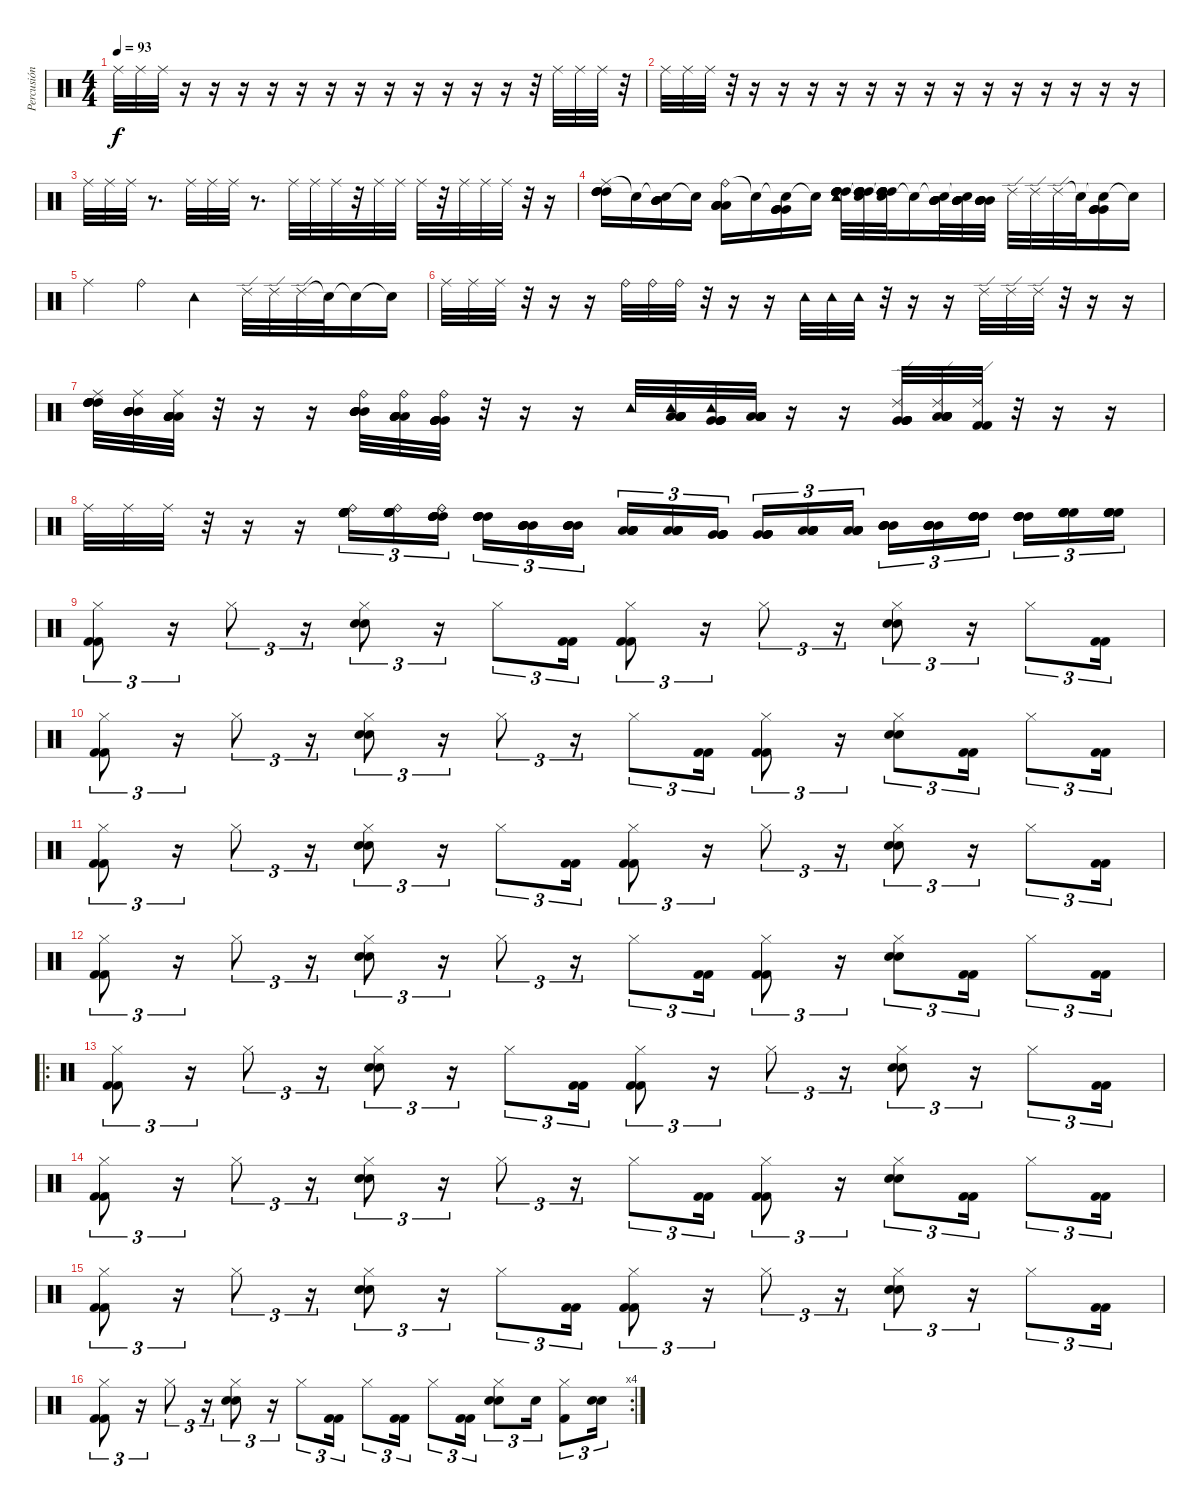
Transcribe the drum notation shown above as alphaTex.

\track ("Percusión" "Percusión") {instrument percussion}
\staff {score}
\articulation defaults
\ts (4 4)
\tempo 93
\clef neutral
\ks c "Ride (middle)".32{dy f} "Ride (middle)".32 "Ride (middle)".32
r.16 r.16 r.16 r.16 r.16 r.16 r.16 r.16 r.16 r.16 r.16 r.16 r.32 "Ride (middle)".32 "Ride (middle)".32 "Ride (middle)".32 r.32 |
"Ride (middle)".32 "Ride (middle)".32 "Ride (middle)".32 r.32 r.16 r.16 r.16 r.16 r.16 r.16 r.16 r.16 r.16 r.16 r.16 r.16 r.16 r.16 |
"Ride (middle)".32 "Ride (middle)".32 "Ride (middle)".32 r.8{d} "Ride (middle)".32 "Ride (middle)".32 "Ride (middle)".32 r.8{d} "Ride (middle)".32 "Ride (middle)".32 "Ride (middle)".32 r.32 "Ride (middle)".32 "Ride (middle)".32 "Ride (middle)".32 r.32 "Ride (middle)".32 "Ride (middle)".32 "Ride (middle)".32 r.32 r.16 |
("Ride (middle)" "High Tom (hit)" "High Tom (hit)" "High Tom (hit)" "High Tom (hit)").16 "Snare (hit)"{t}.16 ("Snare (hit)"{t} "Mid Tom (hit)" "Mid Tom (hit)" "Mid Tom (hit)" "Mid Tom (hit)").16 "Snare (hit)"{t}.16 ("Ride (bell)" "Low Tom (hit)" "Low Tom (hit)" "Low Tom (hit)" "Low Tom (hit)").16 "Snare (hit)"{t}.16 ("Snare (hit)"{t} "Very Low Tom (hit)" "Very Low Tom (hit)" "Very Low Tom (hit)" "Very Low Tom (hit)").16 "Snare (hit)"{t}.16 ("Tambourine (hit)" "High Tom (hit)" "High Tom (hit)" "High Tom (hit)" "High Tom (hit)" "High Tom (hit)").32 ("Snare (hit)"{t} "High Tom (hit)" "High Tom (hit)" "High Tom (hit)" "High Tom (hit)" "High Tom (hit)").32 ("Snare (hit)"{t} "High Tom (hit)" "High Tom (hit)" "High Tom (hit)" "High Tom (hit)" "High Tom (hit)").32 "Snare (hit)"{t}.16 ("Snare (hit)"{t} "Mid Tom (hit)" "Mid Tom (hit)" "Mid Tom (hit)" "Mid Tom (hit)" "Mid Tom (hit)").32 ("Snare (hit)"{t} "Mid Tom (hit)" "Mid Tom (hit)" "Mid Tom (hit)" "Mid Tom (hit)" "Mid Tom (hit)").32 ("Mid Tom (hit)" "Mid Tom (hit)" "Mid Tom (hit)" "Mid Tom (hit)" "Mid Tom (hit)").32 "Ride (edge) 2".32 "Ride (edge) 2".32 "Ride (edge) 2".32 "Snare (hit)"{t}.32 ("Snare (hit)"{t} "Very Low Tom (hit)" "Very Low Tom (hit)" "Very Low Tom (hit)" "Very Low Tom (hit)").16 "Snare (hit)"{t}.16 |
"Ride (middle)".4 "Ride (bell)".4 "Tambourine (hit)".4 "Ride (edge) 2".32 "Ride (edge) 2".32 "Ride (edge) 2".32 "Snare (hit)"{t}.32 "Snare (hit)"{t}.16 "Snare (hit)"{t}.16 |
"Ride (middle)".32 "Ride (middle)".32 "Ride (middle)".32 r.32 r.16 r.16 "Ride (bell)".32 "Ride (bell)".32 "Ride (bell)".32 r.32 r.16 r.16 "Tambourine (hit)".32 "Tambourine (hit)".32 "Tambourine (hit)".32 r.32 r.16 r.16 "Ride (edge) 2".32 "Ride (edge) 2".32 "Ride (edge) 2".32 r.32 r.16 r.16 |
("Ride (middle)" "High Tom (hit)" "High Tom (hit)" "High Tom (hit)" "High Tom (hit)" "High Tom (hit)").32 ("Ride (middle)" "Mid Tom (hit)" "Mid Tom (hit)" "Mid Tom (hit)" "Mid Tom (hit)" "Mid Tom (hit)").32 ("Ride (middle)" "Low Tom (hit)" "Low Tom (hit)" "Low Tom (hit)" "Low Tom (hit)" "Low Tom (hit)").32 r.32 r.16 r.16 ("Ride (bell)" "Mid Tom (hit)" "Mid Tom (hit)" "Mid Tom (hit)" "Mid Tom (hit)" "Mid Tom (hit)").32 ("Ride (bell)" "Low Tom (hit)" "Low Tom (hit)" "Low Tom (hit)" "Low Tom (hit)" "Low Tom (hit)").32 ("Ride (bell)" "Very Low Tom (hit)" "Very Low Tom (hit)" "Very Low Tom (hit)" "Very Low Tom (hit)" "Very Low Tom (hit)").32 r.32 r.16 r.16 "Tambourine (hit)".32 ("Tambourine (hit)" "Low Tom (hit)" "Low Tom (hit)" "Low Tom (hit)" "Low Tom (hit)" "Low Tom (hit)").32 ("Tambourine (hit)" "Very Low Tom (hit)" "Very Low Tom (hit)" "Very Low Tom (hit)" "Very Low Tom (hit)" "Very Low Tom (hit)").32 ("Low Floor Tom (hit)" "Low Floor Tom (hit)" "Low Floor Tom (hit)" "Low Floor Tom (hit)" "Low Floor Tom (hit)").32 r.16 r.16 ("Ride (edge) 2" "Very Low Tom (hit)" "Very Low Tom (hit)" "Very Low Tom (hit)" "Very Low Tom (hit)" "Very Low Tom (hit)").32 ("Ride (edge) 2" "Low Floor Tom (hit)" "Low Floor Tom (hit)" "Low Floor Tom (hit)" "Low Floor Tom (hit)" "Low Floor Tom (hit)").32 ("Ride (edge) 2" "Kick (hit) 2" "Kick (hit) 2").32 r.32 r.16 r.16 |
"Ride (middle)".32 "Ride (middle)".32 "Ride (middle)".32 r.32 r.16 r.16 ("Ride (bell)" "High Floor Tom (hit)" "High Floor Tom (hit)" "High Floor Tom (hit)" "High Floor Tom (hit)" "High Floor Tom (hit)").16{tu (3 2)} ("Ride (bell)" "High Floor Tom (hit)" "High Floor Tom (hit)" "High Floor Tom (hit)" "High Floor Tom (hit)" "High Floor Tom (hit)").16{tu (3 2)} ("Ride (bell)" "High Tom (hit)" "High Tom (hit)" "High Tom (hit)" "High Tom (hit)" "High Tom (hit)").16{tu (3 2)} ("High Tom (hit)" "High Tom (hit)" "High Tom (hit)" "High Tom (hit)" "High Tom (hit)").16{tu (3 2)} ("Mid Tom (hit)" "Mid Tom (hit)" "Mid Tom (hit)" "Mid Tom (hit)" "Mid Tom (hit)").16{tu (3 2)} ("Mid Tom (hit)" "Mid Tom (hit)" "Mid Tom (hit)" "Mid Tom (hit)" "Mid Tom (hit)").16{tu (3 2)} ("Low Tom (hit)" "Low Tom (hit)" "Low Tom (hit)" "Low Tom (hit)" "Low Tom (hit)").16{tu (3 2)} ("Low Tom (hit)" "Low Tom (hit)" "Low Tom (hit)" "Low Tom (hit)" "Low Tom (hit)").16{tu (3 2)} ("Very Low Tom (hit)" "Very Low Tom (hit)" "Very Low Tom (hit)" "Very Low Tom (hit)" "Very Low Tom (hit)").16{tu (3 2)} ("Very Low Tom (hit)" "Very Low Tom (hit)" "Very Low Tom (hit)" "Very Low Tom (hit)" "Very Low Tom (hit)").16{tu (3 2)} ("Low Tom (hit)" "Low Tom (hit)" "Low Tom (hit)" "Low Tom (hit)" "Low Tom (hit)").16{tu (3 2)} ("Low Tom (hit)" "Low Tom (hit)" "Low Tom (hit)" "Low Tom (hit)" "Low Tom (hit)").16{tu (3 2)} ("Mid Tom (hit)" "Mid Tom (hit)" "Mid Tom (hit)" "Mid Tom (hit)" "Mid Tom (hit)").16{tu (3 2)} ("Mid Tom (hit)" "Mid Tom (hit)" "Mid Tom (hit)" "Mid Tom (hit)" "Mid Tom (hit)").16{tu (3 2)} ("High Tom (hit)" "High Tom (hit)" "High Tom (hit)" "High Tom (hit)" "High Tom (hit)").16{tu (3 2)} ("High Tom (hit)" "High Tom (hit)" "High Tom (hit)" "High Tom (hit)" "High Tom (hit)").16{tu (3 2)} ("High Floor Tom (hit)" "High Floor Tom (hit)" "High Floor Tom (hit)" "High Floor Tom (hit)" "High Floor Tom (hit)").16{tu (3 2)} ("High Floor Tom (hit)" "High Floor Tom (hit)" "High Floor Tom (hit)" "High Floor Tom (hit)" "High Floor Tom (hit)").16{tu (3 2)} |
("Hi-Hat (closed)" "Kick (hit) 2" "Kick (hit) 2").8{tu (3 2)} r.16{tu (3 2)} "Hi-Hat (closed)".8{tu (3 2)} r.16{tu (3 2)} ("Hi-Hat (closed)" "Electric Snare (hit)" "Electric Snare (hit)").8{tu (3 2)} r.16{tu (3 2)} "Hi-Hat (closed)".8{tu (3 2)} ("Kick (hit) 2" "Kick (hit) 2").16{tu (3 2)} ("Hi-Hat (closed)" "Kick (hit) 2" "Kick (hit) 2").8{tu (3 2)} r.16{tu (3 2)} "Hi-Hat (closed)".8{tu (3 2)} r.16{tu (3 2)} ("Hi-Hat (closed)" "Electric Snare (hit)" "Electric Snare (hit)").8{tu (3 2)} r.16{tu (3 2)} "Hi-Hat (closed)".8{tu (3 2)} ("Kick (hit) 2" "Kick (hit) 2").16{tu (3 2)} |
("Hi-Hat (closed)" "Kick (hit) 2" "Kick (hit) 2").8{tu (3 2)} r.16{tu (3 2)} "Hi-Hat (closed)".8{tu (3 2)} r.16{tu (3 2)} ("Hi-Hat (closed)" "Electric Snare (hit)" "Electric Snare (hit)").8{tu (3 2)} r.16{tu (3 2)} "Hi-Hat (closed)".8{tu (3 2)} r.16{tu (3 2)} "Hi-Hat (closed)".8{tu (3 2)} ("Kick (hit) 2" "Kick (hit) 2").16{tu (3 2)} ("Hi-Hat (closed)" "Kick (hit) 2" "Kick (hit) 2").8{tu (3 2)} r.16{tu (3 2)} ("Hi-Hat (closed)" "Electric Snare (hit)" "Electric Snare (hit)").8{tu (3 2)} ("Kick (hit) 2" "Kick (hit) 2").16{tu (3 2)} "Hi-Hat (closed)".8{tu (3 2)} ("Kick (hit) 2" "Kick (hit) 2").16{tu (3 2)} |
("Hi-Hat (closed)" "Kick (hit) 2" "Kick (hit) 2").8{tu (3 2)} r.16{tu (3 2)} "Hi-Hat (closed)".8{tu (3 2)} r.16{tu (3 2)} ("Hi-Hat (closed)" "Electric Snare (hit)" "Electric Snare (hit)").8{tu (3 2)} r.16{tu (3 2)} "Hi-Hat (closed)".8{tu (3 2)} ("Kick (hit) 2" "Kick (hit) 2").16{tu (3 2)} ("Hi-Hat (closed)" "Kick (hit) 2" "Kick (hit) 2").8{tu (3 2)} r.16{tu (3 2)} "Hi-Hat (closed)".8{tu (3 2)} r.16{tu (3 2)} ("Hi-Hat (closed)" "Electric Snare (hit)" "Electric Snare (hit)").8{tu (3 2)} r.16{tu (3 2)} "Hi-Hat (closed)".8{tu (3 2)} ("Kick (hit) 2" "Kick (hit) 2").16{tu (3 2)} |
("Hi-Hat (closed)" "Kick (hit) 2" "Kick (hit) 2").8{tu (3 2)} r.16{tu (3 2)} "Hi-Hat (closed)".8{tu (3 2)} r.16{tu (3 2)} ("Hi-Hat (closed)" "Electric Snare (hit)" "Electric Snare (hit)").8{tu (3 2)} r.16{tu (3 2)} "Hi-Hat (closed)".8{tu (3 2)} r.16{tu (3 2)} "Hi-Hat (closed)".8{tu (3 2)} ("Kick (hit) 2" "Kick (hit) 2").16{tu (3 2)} ("Hi-Hat (closed)" "Kick (hit) 2" "Kick (hit) 2").8{tu (3 2)} r.16{tu (3 2)} ("Hi-Hat (closed)" "Electric Snare (hit)" "Electric Snare (hit)").8{tu (3 2)} ("Kick (hit) 2" "Kick (hit) 2").16{tu (3 2)} "Hi-Hat (closed)".8{tu (3 2)} ("Kick (hit) 2" "Kick (hit) 2").16{tu (3 2)} |
\ro
("Hi-Hat (closed)" "Kick (hit) 2" "Kick (hit) 2").8{tu (3 2)} r.16{tu (3 2)} "Hi-Hat (closed)".8{tu (3 2)} r.16{tu (3 2)} ("Hi-Hat (closed)" "Electric Snare (hit)" "Electric Snare (hit)").8{tu (3 2)} r.16{tu (3 2)} "Hi-Hat (closed)".8{tu (3 2)} ("Kick (hit) 2" "Kick (hit) 2").16{tu (3 2)} ("Hi-Hat (closed)" "Kick (hit) 2" "Kick (hit) 2").8{tu (3 2)} r.16{tu (3 2)} "Hi-Hat (closed)".8{tu (3 2)} r.16{tu (3 2)} ("Hi-Hat (closed)" "Electric Snare (hit)" "Electric Snare (hit)").8{tu (3 2)} r.16{tu (3 2)} "Hi-Hat (closed)".8{tu (3 2)} ("Kick (hit) 2" "Kick (hit) 2").16{tu (3 2)} |
("Hi-Hat (closed)" "Kick (hit) 2" "Kick (hit) 2").8{tu (3 2)} r.16{tu (3 2)} "Hi-Hat (closed)".8{tu (3 2)} r.16{tu (3 2)} ("Hi-Hat (closed)" "Electric Snare (hit)" "Electric Snare (hit)").8{tu (3 2)} r.16{tu (3 2)} "Hi-Hat (closed)".8{tu (3 2)} r.16{tu (3 2)} "Hi-Hat (closed)".8{tu (3 2)} ("Kick (hit) 2" "Kick (hit) 2").16{tu (3 2)} ("Hi-Hat (closed)" "Kick (hit) 2" "Kick (hit) 2").8{tu (3 2)} r.16{tu (3 2)} ("Hi-Hat (closed)" "Electric Snare (hit)" "Electric Snare (hit)").8{tu (3 2)} ("Kick (hit) 2" "Kick (hit) 2").16{tu (3 2)} "Hi-Hat (closed)".8{tu (3 2)} ("Kick (hit) 2" "Kick (hit) 2").16{tu (3 2)} |
("Hi-Hat (closed)" "Kick (hit) 2" "Kick (hit) 2").8{tu (3 2)} r.16{tu (3 2)} "Hi-Hat (closed)".8{tu (3 2)} r.16{tu (3 2)} ("Hi-Hat (closed)" "Electric Snare (hit)" "Electric Snare (hit)").8{tu (3 2)} r.16{tu (3 2)} "Hi-Hat (closed)".8{tu (3 2)} ("Kick (hit) 2" "Kick (hit) 2").16{tu (3 2)} ("Hi-Hat (closed)" "Kick (hit) 2" "Kick (hit) 2").8{tu (3 2)} r.16{tu (3 2)} "Hi-Hat (closed)".8{tu (3 2)} r.16{tu (3 2)} ("Hi-Hat (closed)" "Electric Snare (hit)" "Electric Snare (hit)").8{tu (3 2)} r.16{tu (3 2)} "Hi-Hat (closed)".8{tu (3 2)} ("Kick (hit) 2" "Kick (hit) 2").16{tu (3 2)} |
\rc 4
("Hi-Hat (closed)" "Kick (hit) 2" "Kick (hit) 2").8{tu (3 2)} r.16{tu (3 2)} "Hi-Hat (closed)".8{tu (3 2)} r.16{tu (3 2)} ("Hi-Hat (closed)" "Electric Snare (hit)" "Electric Snare (hit)").8{tu (3 2)} r.16{tu (3 2)} "Hi-Hat (closed)".8{tu (3 2)} ("Kick (hit) 2" "Kick (hit) 2").16{tu (3 2)} "Hi-Hat (closed)".8{tu (3 2)} ("Kick (hit) 2" "Kick (hit) 2").16{tu (3 2)} "Hi-Hat (closed)".8{tu (3 2)} ("Kick (hit) 2" "Kick (hit) 2").16{tu (3 2)} ("Hi-Hat (closed)" "Electric Snare (hit)" "Electric Snare (hit)").8{tu (3 2)} "Electric Snare (hit)".16{tu (3 2)} ("Hi-Hat (closed)" "Kick (hit) 2").8{tu (3 2)} ("Electric Snare (hit)" "Electric Snare (hit)").16{tu (3 2)}
